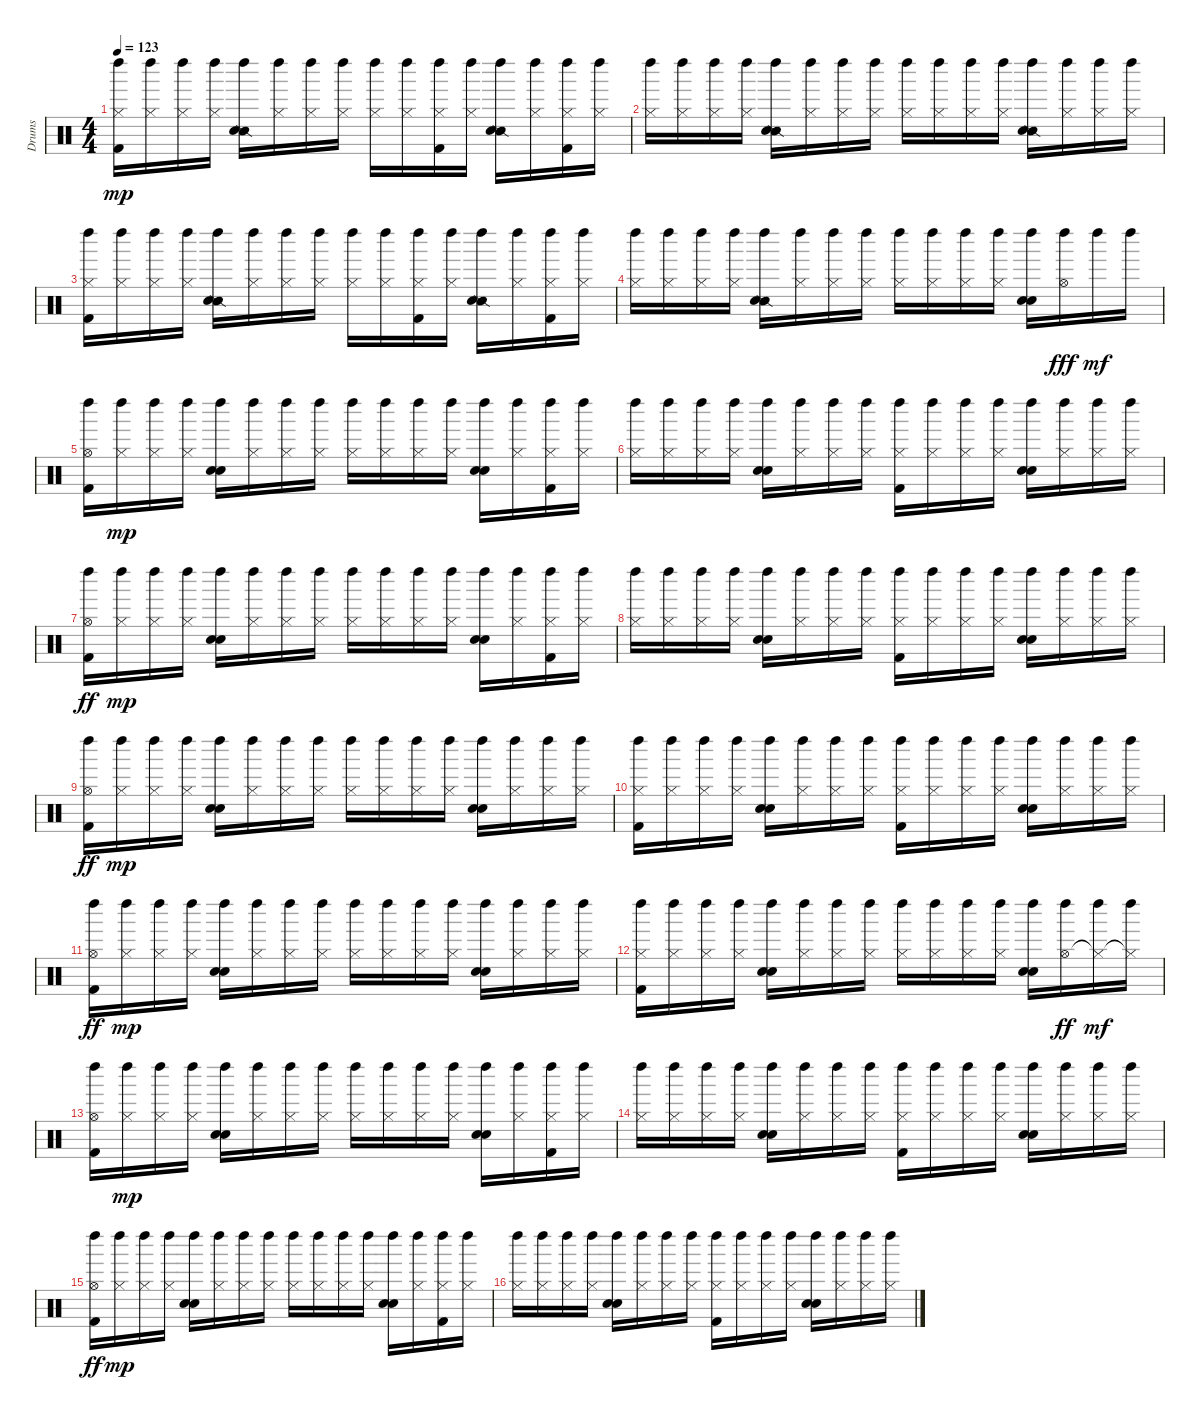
\track ("Drums" "Drums") {instrument percussion}
\staff {score}
\articulation defaults
\ts (4 4)
\tempo 123
\clef neutral
\ks c
("Left Maraca (hit)" "Hi-Hat (closed)" "Kick (hit) 2").16{dy mp} ("Left Maraca (hit)" "Hi-Hat (closed)").16 ("Left Maraca (hit)" "Hi-Hat (closed)").16 ("Left Maraca (hit)" "Hi-Hat (closed)").16 ("Left Maraca (hit)" "Snare (side stick) 2" "Hand Clap (hit)").16 ("Left Maraca (hit)" "Hi-Hat (closed)").16 ("Left Maraca (hit)" "Hi-Hat (closed)").16 ("Left Maraca (hit)" "Hi-Hat (closed)").16 ("Left Maraca (hit)" "Hi-Hat (closed)").16 ("Left Maraca (hit)" "Hi-Hat (closed)").16 ("Left Maraca (hit)" "Hi-Hat (closed)" "Kick (hit) 2").16 ("Left Maraca (hit)" "Hi-Hat (closed)").16 ("Left Maraca (hit)" "Snare (side stick) 2" "Hand Clap (hit)").16 ("Left Maraca (hit)" "Hi-Hat (closed)").16 ("Left Maraca (hit)" "Hi-Hat (closed)" "Kick (hit) 2").16 ("Left Maraca (hit)" "Hi-Hat (closed)").16 |
("Left Maraca (hit)" "Hi-Hat (closed)").16 ("Left Maraca (hit)" "Hi-Hat (closed)").16 ("Left Maraca (hit)" "Hi-Hat (closed)").16 ("Left Maraca (hit)" "Hi-Hat (closed)").16 ("Left Maraca (hit)" "Snare (side stick) 2" "Hand Clap (hit)").16 ("Left Maraca (hit)" "Hi-Hat (closed)").16 ("Left Maraca (hit)" "Hi-Hat (closed)").16 ("Left Maraca (hit)" "Hi-Hat (closed)").16 ("Left Maraca (hit)" "Hi-Hat (closed)").16 ("Left Maraca (hit)" "Hi-Hat (closed)").16 ("Left Maraca (hit)" "Hi-Hat (closed)").16 ("Left Maraca (hit)" "Hi-Hat (closed)").16 ("Left Maraca (hit)" "Snare (side stick) 2" "Hand Clap (hit)").16 ("Left Maraca (hit)" "Hi-Hat (closed)").16 ("Left Maraca (hit)" "Hi-Hat (closed)").16 ("Left Maraca (hit)" "Hi-Hat (closed)").16 |
("Left Maraca (hit)" "Hi-Hat (closed)" "Kick (hit) 2").16 ("Left Maraca (hit)" "Hi-Hat (closed)").16 ("Left Maraca (hit)" "Hi-Hat (closed)").16 ("Left Maraca (hit)" "Hi-Hat (closed)").16 ("Left Maraca (hit)" "Snare (side stick) 2" "Hand Clap (hit)").16 ("Left Maraca (hit)" "Hi-Hat (closed)").16 ("Left Maraca (hit)" "Hi-Hat (closed)").16 ("Left Maraca (hit)" "Hi-Hat (closed)").16 ("Left Maraca (hit)" "Hi-Hat (closed)").16 ("Left Maraca (hit)" "Hi-Hat (closed)").16 ("Left Maraca (hit)" "Hi-Hat (closed)" "Kick (hit) 2").16 ("Left Maraca (hit)" "Hi-Hat (closed)").16 ("Left Maraca (hit)" "Snare (side stick) 2" "Hand Clap (hit)").16 ("Left Maraca (hit)" "Hi-Hat (closed)").16 ("Left Maraca (hit)" "Hi-Hat (closed)" "Kick (hit) 2").16 ("Left Maraca (hit)" "Hi-Hat (closed)").16 |
("Left Maraca (hit)" "Hi-Hat (closed)").16 ("Left Maraca (hit)" "Hi-Hat (closed)").16 ("Left Maraca (hit)" "Hi-Hat (closed)").16 ("Left Maraca (hit)" "Hi-Hat (closed)").16 ("Left Maraca (hit)" "Snare (side stick) 2" "Hand Clap (hit)").16 ("Left Maraca (hit)" "Hi-Hat (closed)").16 ("Left Maraca (hit)" "Hi-Hat (closed)").16 ("Left Maraca (hit)" "Hi-Hat (closed)").16 ("Left Maraca (hit)" "Hi-Hat (closed)").16 ("Left Maraca (hit)" "Hi-Hat (closed)").16 ("Left Maraca (hit)" "Hi-Hat (closed)").16 ("Left Maraca (hit)" "Hi-Hat (closed)").16 ("Left Maraca (hit)" "Snare (hit) 2" "Hand Clap (hit)").16 ("Left Maraca (hit)" "Hi-Hat (open)").16{dy fff} "Left Maraca (hit)".16{dy mf} "Left Maraca (hit)".16 |
("Left Maraca (hit)" "Hi-Hat (open)" "Kick (hit) 2").16 ("Left Maraca (hit)" "Hi-Hat (closed)").16{dy mp} ("Left Maraca (hit)" "Hi-Hat (closed)").16 ("Left Maraca (hit)" "Hi-Hat (closed)").16 ("Left Maraca (hit)" "Snare (hit) 2" "Hand Clap (hit)").16 ("Left Maraca (hit)" "Hi-Hat (closed)").16 ("Left Maraca (hit)" "Hi-Hat (closed)").16 ("Left Maraca (hit)" "Hi-Hat (closed)").16 ("Left Maraca (hit)" "Hi-Hat (closed)").16 ("Left Maraca (hit)" "Hi-Hat (closed)").16 ("Left Maraca (hit)" "Hi-Hat (closed)").16 ("Left Maraca (hit)" "Hi-Hat (closed)").16 ("Left Maraca (hit)" "Snare (hit) 2" "Hand Clap (hit)").16 ("Left Maraca (hit)" "Hi-Hat (closed)").16 ("Left Maraca (hit)" "Hi-Hat (closed)" "Kick (hit) 2").16 ("Left Maraca (hit)" "Hi-Hat (closed)").16 |
("Left Maraca (hit)" "Hi-Hat (closed)").16 ("Left Maraca (hit)" "Hi-Hat (closed)").16 ("Left Maraca (hit)" "Hi-Hat (closed)").16 ("Left Maraca (hit)" "Hi-Hat (closed)").16 ("Left Maraca (hit)" "Snare (hit) 2" "Hand Clap (hit)").16 ("Left Maraca (hit)" "Hi-Hat (closed)").16 ("Left Maraca (hit)" "Hi-Hat (closed)").16 ("Left Maraca (hit)" "Hi-Hat (closed)").16 ("Left Maraca (hit)" "Hi-Hat (closed)" "Kick (hit) 2").16 ("Left Maraca (hit)" "Hi-Hat (closed)").16 ("Left Maraca (hit)" "Hi-Hat (closed)").16 ("Left Maraca (hit)" "Hi-Hat (closed)").16 ("Left Maraca (hit)" "Snare (hit) 2" "Hand Clap (hit)").16 ("Left Maraca (hit)" "Hi-Hat (closed)").16 ("Left Maraca (hit)" "Hi-Hat (closed)").16 ("Left Maraca (hit)" "Hi-Hat (closed)").16 |
("Left Maraca (hit)" "Hi-Hat (open)" "Kick (hit) 2").16{dy ff} ("Left Maraca (hit)" "Hi-Hat (closed)").16{dy mp} ("Left Maraca (hit)" "Hi-Hat (closed)").16 ("Left Maraca (hit)" "Hi-Hat (closed)").16 ("Left Maraca (hit)" "Snare (hit) 2" "Hand Clap (hit)").16 ("Left Maraca (hit)" "Hi-Hat (closed)").16 ("Left Maraca (hit)" "Hi-Hat (closed)").16 ("Left Maraca (hit)" "Hi-Hat (closed)").16 ("Left Maraca (hit)" "Hi-Hat (closed)").16 ("Left Maraca (hit)" "Hi-Hat (closed)").16 ("Left Maraca (hit)" "Hi-Hat (closed)").16 ("Left Maraca (hit)" "Hi-Hat (closed)").16 ("Left Maraca (hit)" "Snare (hit) 2" "Hand Clap (hit)").16 ("Left Maraca (hit)" "Hi-Hat (closed)").16 ("Left Maraca (hit)" "Hi-Hat (closed)" "Kick (hit) 2").16 ("Left Maraca (hit)" "Hi-Hat (closed)").16 |
("Left Maraca (hit)" "Hi-Hat (closed)").16 ("Left Maraca (hit)" "Hi-Hat (closed)").16 ("Left Maraca (hit)" "Hi-Hat (closed)").16 ("Left Maraca (hit)" "Hi-Hat (closed)").16 ("Left Maraca (hit)" "Snare (hit) 2" "Hand Clap (hit)").16 ("Left Maraca (hit)" "Hi-Hat (closed)").16 ("Left Maraca (hit)" "Hi-Hat (closed)").16 ("Left Maraca (hit)" "Hi-Hat (closed)").16 ("Left Maraca (hit)" "Hi-Hat (closed)" "Kick (hit) 2").16 ("Left Maraca (hit)" "Hi-Hat (closed)").16 ("Left Maraca (hit)" "Hi-Hat (closed)").16 ("Left Maraca (hit)" "Hi-Hat (closed)").16 ("Left Maraca (hit)" "Snare (hit) 2" "Hand Clap (hit)").16 ("Left Maraca (hit)" "Hi-Hat (closed)").16 ("Left Maraca (hit)" "Hi-Hat (closed)").16 ("Left Maraca (hit)" "Hi-Hat (closed)").16 |
("Left Maraca (hit)" "Hi-Hat (open)" "Kick (hit) 2").16{dy ff} ("Left Maraca (hit)" "Hi-Hat (closed)").16{dy mp} ("Left Maraca (hit)" "Hi-Hat (closed)").16 ("Left Maraca (hit)" "Hi-Hat (closed)").16 ("Left Maraca (hit)" "Snare (hit) 2" "Hand Clap (hit)").16 ("Left Maraca (hit)" "Hi-Hat (closed)").16 ("Left Maraca (hit)" "Hi-Hat (closed)").16 ("Left Maraca (hit)" "Hi-Hat (closed)").16 ("Left Maraca (hit)" "Hi-Hat (closed)").16 ("Left Maraca (hit)" "Hi-Hat (closed)").16 ("Left Maraca (hit)" "Hi-Hat (closed)").16 ("Left Maraca (hit)" "Hi-Hat (closed)").16 ("Left Maraca (hit)" "Snare (hit) 2" "Hand Clap (hit)").16 ("Left Maraca (hit)" "Hi-Hat (closed)").16 ("Left Maraca (hit)" "Hi-Hat (closed)").16 ("Left Maraca (hit)" "Hi-Hat (closed)").16 |
("Left Maraca (hit)" "Hi-Hat (closed)" "Kick (hit) 2").16 ("Left Maraca (hit)" "Hi-Hat (closed)").16 ("Left Maraca (hit)" "Hi-Hat (closed)").16 ("Left Maraca (hit)" "Hi-Hat (closed)").16 ("Left Maraca (hit)" "Snare (hit) 2" "Hand Clap (hit)").16 ("Left Maraca (hit)" "Hi-Hat (closed)").16 ("Left Maraca (hit)" "Hi-Hat (closed)").16 ("Left Maraca (hit)" "Hi-Hat (closed)").16 ("Left Maraca (hit)" "Hi-Hat (closed)" "Kick (hit) 2").16 ("Left Maraca (hit)" "Hi-Hat (closed)").16 ("Left Maraca (hit)" "Hi-Hat (closed)").16 ("Left Maraca (hit)" "Hi-Hat (closed)").16 ("Left Maraca (hit)" "Snare (hit) 2" "Hand Clap (hit)").16 ("Left Maraca (hit)" "Hi-Hat (closed)").16 ("Left Maraca (hit)" "Hi-Hat (closed)").16 ("Left Maraca (hit)" "Hi-Hat (closed)").16 |
("Left Maraca (hit)" "Hi-Hat (open)" "Kick (hit) 2").16{dy ff} ("Left Maraca (hit)" "Hi-Hat (closed)").16{dy mp} ("Left Maraca (hit)" "Hi-Hat (closed)").16 ("Left Maraca (hit)" "Hi-Hat (closed)").16 ("Left Maraca (hit)" "Snare (hit) 2" "Hand Clap (hit)").16 ("Left Maraca (hit)" "Hi-Hat (closed)").16 ("Left Maraca (hit)" "Hi-Hat (closed)").16 ("Left Maraca (hit)" "Hi-Hat (closed)").16 ("Left Maraca (hit)" "Hi-Hat (closed)").16 ("Left Maraca (hit)" "Hi-Hat (closed)").16 ("Left Maraca (hit)" "Hi-Hat (closed)").16 ("Left Maraca (hit)" "Hi-Hat (closed)").16 ("Left Maraca (hit)" "Snare (hit) 2" "Hand Clap (hit)").16 ("Left Maraca (hit)" "Hi-Hat (closed)").16 ("Left Maraca (hit)" "Hi-Hat (closed)").16 ("Left Maraca (hit)" "Hi-Hat (closed)").16 |
("Left Maraca (hit)" "Hi-Hat (closed)" "Kick (hit) 2").16 ("Left Maraca (hit)" "Hi-Hat (closed)").16 ("Left Maraca (hit)" "Hi-Hat (closed)").16 ("Left Maraca (hit)" "Hi-Hat (closed)").16 ("Left Maraca (hit)" "Snare (hit) 2" "Hand Clap (hit)").16 ("Left Maraca (hit)" "Hi-Hat (closed)").16 ("Left Maraca (hit)" "Hi-Hat (closed)").16 ("Left Maraca (hit)" "Hi-Hat (closed)").16 ("Left Maraca (hit)" "Hi-Hat (closed)").16 ("Left Maraca (hit)" "Hi-Hat (closed)").16 ("Left Maraca (hit)" "Hi-Hat (closed)").16 ("Left Maraca (hit)" "Hi-Hat (closed)").16 ("Left Maraca (hit)" "Snare (hit) 2" "Hand Clap (hit)").16 ("Left Maraca (hit)" "Hi-Hat (open)").16{dy ff} ("Left Maraca (hit)" "Hi-Hat (closed)"{t}).16{dy mf} ("Left Maraca (hit)" "Hi-Hat (closed)"{t}).16 |
("Left Maraca (hit)" "Hi-Hat (open)" "Kick (hit) 2").16 ("Left Maraca (hit)" "Hi-Hat (closed)").16{dy mp} ("Left Maraca (hit)" "Hi-Hat (closed)").16 ("Left Maraca (hit)" "Hi-Hat (closed)").16 ("Left Maraca (hit)" "Snare (hit) 2" "Hand Clap (hit)").16 ("Left Maraca (hit)" "Hi-Hat (closed)").16 ("Left Maraca (hit)" "Hi-Hat (closed)").16 ("Left Maraca (hit)" "Hi-Hat (closed)").16 ("Left Maraca (hit)" "Hi-Hat (closed)").16 ("Left Maraca (hit)" "Hi-Hat (closed)").16 ("Left Maraca (hit)" "Hi-Hat (closed)").16 ("Left Maraca (hit)" "Hi-Hat (closed)").16 ("Left Maraca (hit)" "Snare (hit) 2" "Hand Clap (hit)").16 ("Left Maraca (hit)" "Hi-Hat (closed)").16 ("Left Maraca (hit)" "Hi-Hat (closed)" "Kick (hit) 2").16 ("Left Maraca (hit)" "Hi-Hat (closed)").16 |
("Left Maraca (hit)" "Hi-Hat (closed)").16 ("Left Maraca (hit)" "Hi-Hat (closed)").16 ("Left Maraca (hit)" "Hi-Hat (closed)").16 ("Left Maraca (hit)" "Hi-Hat (closed)").16 ("Left Maraca (hit)" "Snare (hit) 2" "Hand Clap (hit)").16 ("Left Maraca (hit)" "Hi-Hat (closed)").16 ("Left Maraca (hit)" "Hi-Hat (closed)").16 ("Left Maraca (hit)" "Hi-Hat (closed)").16 ("Left Maraca (hit)" "Hi-Hat (closed)" "Kick (hit) 2").16 ("Left Maraca (hit)" "Hi-Hat (closed)").16 ("Left Maraca (hit)" "Hi-Hat (closed)").16 ("Left Maraca (hit)" "Hi-Hat (closed)").16 ("Left Maraca (hit)" "Snare (hit) 2" "Hand Clap (hit)").16 ("Left Maraca (hit)" "Hi-Hat (closed)").16 ("Left Maraca (hit)" "Hi-Hat (closed)").16 ("Left Maraca (hit)" "Hi-Hat (closed)").16 |
("Left Maraca (hit)" "Hi-Hat (open)" "Kick (hit) 2").16{dy ff} ("Left Maraca (hit)" "Hi-Hat (closed)").16{dy mp} ("Left Maraca (hit)" "Hi-Hat (closed)").16 ("Left Maraca (hit)" "Hi-Hat (closed)").16 ("Left Maraca (hit)" "Snare (hit) 2" "Hand Clap (hit)").16 ("Left Maraca (hit)" "Hi-Hat (closed)").16 ("Left Maraca (hit)" "Hi-Hat (closed)").16 ("Left Maraca (hit)" "Hi-Hat (closed)").16 ("Left Maraca (hit)" "Hi-Hat (closed)").16 ("Left Maraca (hit)" "Hi-Hat (closed)").16 ("Left Maraca (hit)" "Hi-Hat (closed)").16 ("Left Maraca (hit)" "Hi-Hat (closed)").16 ("Left Maraca (hit)" "Snare (hit) 2" "Hand Clap (hit)").16 ("Left Maraca (hit)" "Hi-Hat (closed)").16 ("Left Maraca (hit)" "Hi-Hat (closed)" "Kick (hit) 2").16 ("Left Maraca (hit)" "Hi-Hat (closed)").16 |
("Left Maraca (hit)" "Hi-Hat (closed)").16 ("Left Maraca (hit)" "Hi-Hat (closed)").16 ("Left Maraca (hit)" "Hi-Hat (closed)").16 ("Left Maraca (hit)" "Hi-Hat (closed)").16 ("Left Maraca (hit)" "Snare (hit) 2" "Hand Clap (hit)").16 ("Left Maraca (hit)" "Hi-Hat (closed)").16 ("Left Maraca (hit)" "Hi-Hat (closed)").16 ("Left Maraca (hit)" "Hi-Hat (closed)").16 ("Left Maraca (hit)" "Hi-Hat (closed)" "Kick (hit) 2").16 ("Left Maraca (hit)" "Hi-Hat (closed)").16 ("Left Maraca (hit)" "Hi-Hat (closed)").16 ("Left Maraca (hit)" "Hi-Hat (closed)").16 ("Left Maraca (hit)" "Snare (hit) 2" "Hand Clap (hit)").16 ("Left Maraca (hit)" "Hi-Hat (closed)").16 ("Left Maraca (hit)" "Hi-Hat (closed)").16 ("Left Maraca (hit)" "Hi-Hat (closed)").16
